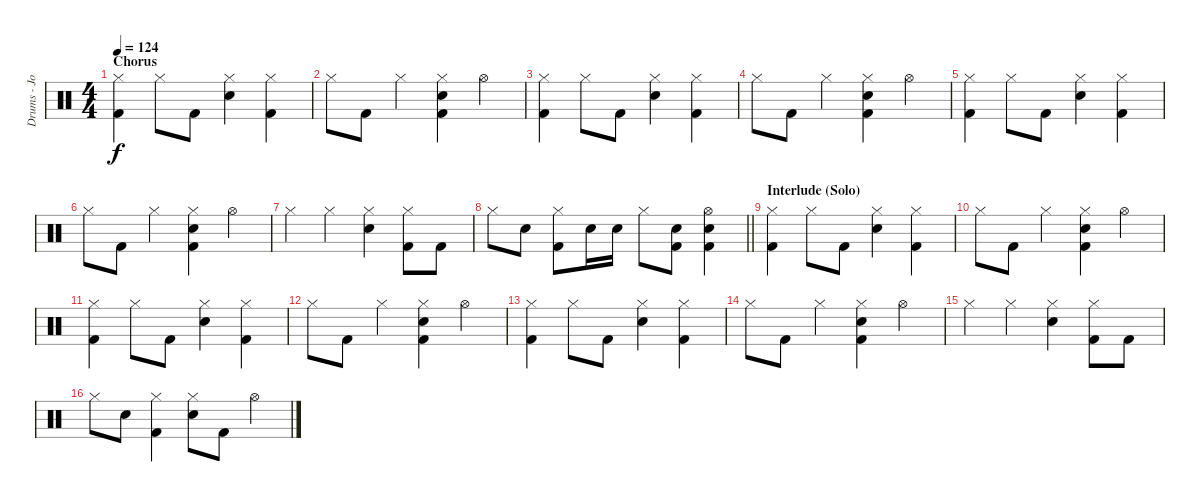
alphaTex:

\track ("Drums - John Humphrey" "Drums - Jo") {instrument percussion}
\staff {score}
\articulation defaults
\ts (4 4)
\section ("" "Chorus")
\tempo 124
\clef neutral
\ks c
("Hi-Hat (closed)" "Kick (hit) 2").4{dy f} "Hi-Hat (closed)".8 "Kick (hit) 2".8 ("Hi-Hat (closed)" "Electric Snare (hit)").4 ("Hi-Hat (closed)" "Kick (hit) 2").4 |
"Hi-Hat (closed)".8 "Kick (hit) 2".8 "Hi-Hat (closed)".4 ("Hi-Hat (closed)" "Electric Snare (hit)" "Kick (hit) 2").4 "Hi-Hat (open)".4 |
("Hi-Hat (closed)" "Kick (hit) 2").4 "Hi-Hat (closed)".8 "Kick (hit) 2".8 ("Hi-Hat (closed)" "Electric Snare (hit)").4 ("Hi-Hat (closed)" "Kick (hit) 2").4 |
"Hi-Hat (closed)".8 "Kick (hit) 2".8 "Hi-Hat (closed)".4 ("Hi-Hat (closed)" "Electric Snare (hit)" "Kick (hit) 2").4 "Hi-Hat (open)".4 |
("Hi-Hat (closed)" "Kick (hit) 2").4 "Hi-Hat (closed)".8 "Kick (hit) 2".8 ("Hi-Hat (closed)" "Electric Snare (hit)").4 ("Hi-Hat (closed)" "Kick (hit) 2").4 |
"Hi-Hat (closed)".8 "Kick (hit) 2".8 "Hi-Hat (closed)".4 ("Hi-Hat (closed)" "Electric Snare (hit)" "Kick (hit) 2").4 "Hi-Hat (open)".4 |
"Hi-Hat (closed)".4 "Hi-Hat (closed)".4 ("Hi-Hat (closed)" "Electric Snare (hit)").4 ("Hi-Hat (closed)" "Kick (hit) 2").8 "Kick (hit) 2".8 |
\barLineRight lightlight "Hi-Hat (closed)".8 "Electric Snare (hit)".8
("Hi-Hat (closed)" "Kick (hit) 2").8 "Electric Snare (hit)".16 "Electric Snare (hit)".16 "Hi-Hat (closed)".8 ("Electric Snare (hit)" "Kick (hit) 2").8 ("Hi-Hat (open)" "Electric Snare (hit)" "Kick (hit) 2").4 |
\section ("" "Interlude (Solo)")
("Hi-Hat (closed)" "Kick (hit) 2").4 "Hi-Hat (closed)".8 "Kick (hit) 2".8 ("Hi-Hat (closed)" "Electric Snare (hit)").4 ("Hi-Hat (closed)" "Kick (hit) 2").4 |
"Hi-Hat (closed)".8 "Kick (hit) 2".8 "Hi-Hat (closed)".4 ("Hi-Hat (closed)" "Electric Snare (hit)" "Kick (hit) 2").4 "Hi-Hat (open)".4 |
("Hi-Hat (closed)" "Kick (hit) 2").4 "Hi-Hat (closed)".8 "Kick (hit) 2".8 ("Hi-Hat (closed)" "Electric Snare (hit)").4 ("Hi-Hat (closed)" "Kick (hit) 2").4 |
"Hi-Hat (closed)".8 "Kick (hit) 2".8 "Hi-Hat (closed)".4 ("Hi-Hat (closed)" "Electric Snare (hit)" "Kick (hit) 2").4 "Hi-Hat (open)".4 |
("Hi-Hat (closed)" "Kick (hit) 2").4 "Hi-Hat (closed)".8 "Kick (hit) 2".8 ("Hi-Hat (closed)" "Electric Snare (hit)").4 ("Hi-Hat (closed)" "Kick (hit) 2").4 |
"Hi-Hat (closed)".8 "Kick (hit) 2".8 "Hi-Hat (closed)".4 ("Hi-Hat (closed)" "Electric Snare (hit)" "Kick (hit) 2").4 "Hi-Hat (open)".4 |
"Hi-Hat (closed)".4 "Hi-Hat (closed)".4 ("Hi-Hat (closed)" "Electric Snare (hit)").4 ("Hi-Hat (closed)" "Kick (hit) 2").8 "Kick (hit) 2".8 |
"Hi-Hat (closed)".8 "Electric Snare (hit)".8 ("Hi-Hat (closed)" "Kick (hit) 2").4 ("Hi-Hat (closed)" "Electric Snare (hit)").8 "Kick (hit) 2".8 "Hi-Hat (open)".4
